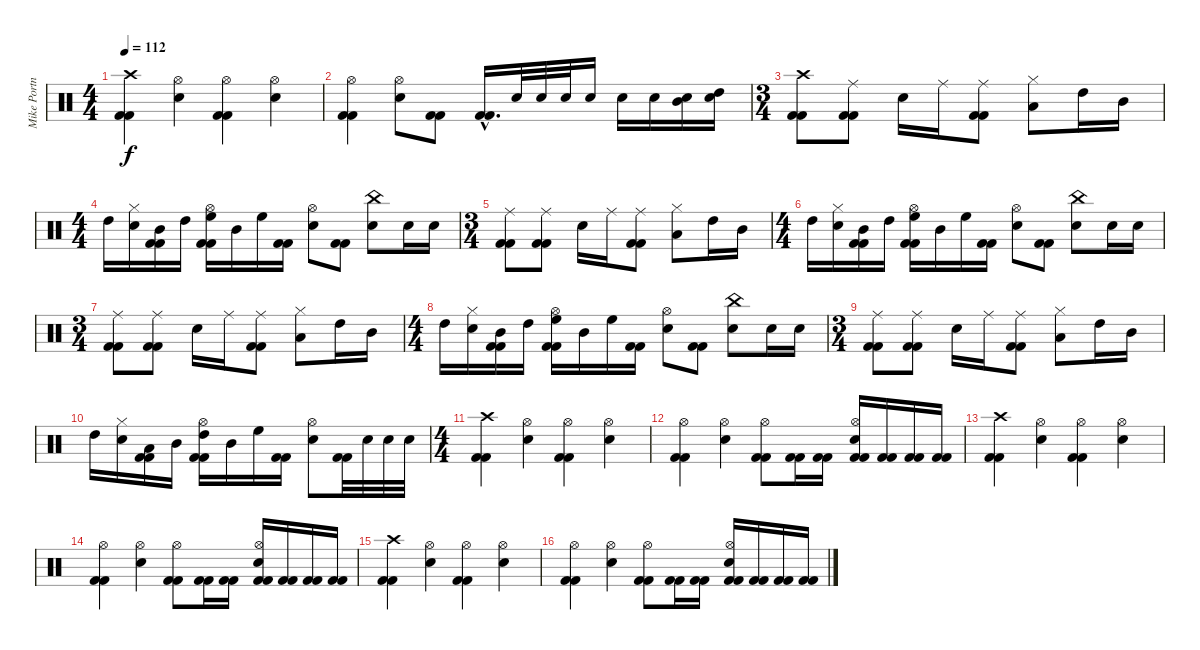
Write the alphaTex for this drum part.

\track ("Mike Portnoy - Drum" "Mike Portn") {instrument percussion}
\staff {score}
\articulation defaults
\ts (4 4)
\tempo 112
\clef neutral
\ks c
("Crash high (hit)" "Kick (hit) 2" "Kick (hit) 2").4{dy f} ("Hi-Hat (open)" "Snare (hit) 2").4 ("Hi-Hat (open)" "Kick (hit) 2" "Kick (hit) 2").4 ("Hi-Hat (open)" "Snare (hit) 2").4 |
("Hi-Hat (open)" "Kick (hit) 2" "Kick (hit) 2").4 ("Hi-Hat (open)" "Snare (hit) 2").8 ("Kick (hit) 2" "Kick (hit) 2").8 ("Kick (hit) 2"{hac} "Kick (hit) 2"{hac}).16{d} "Snare (hit) 2".32 "Snare (hit) 2".32 "Snare (hit) 2".32 "Snare (hit) 2".16 "Snare (hit) 2".16 "Snare (hit) 2".16 ("Mid Tom (hit)" "Snare (hit) 2").16 ("High Tom (hit)" "Snare (hit) 2").16 |
\ts (3 4)
("Crash high (hit)" "Kick (hit) 2" "Kick (hit) 2").8 ("Ride (middle)" "Kick (hit) 2" "Kick (hit) 2").8 "Snare (hit) 2".16 "Ride (middle)".16 ("Ride (middle)" "Kick (hit) 2" "Kick (hit) 2").8 ("Low Tom (hit)" "Hi-Hat (closed)").8 "High Tom (hit)".16 "Mid Tom (hit)".16 |
\ts (4 4)
"High Tom (hit)".16 ("Snare (hit) 2" "Hi-Hat (closed)").16 ("Mid Tom (hit)" "Kick (hit) 2" "Kick (hit) 2").16 "High Tom (hit)".16 ("Hi-Hat (open)" "High Floor Tom (hit)" "Kick (hit) 2" "Kick (hit) 2").16 "Mid Tom (hit)".16 "High Floor Tom (hit)".16 ("Kick (hit) 2" "Kick (hit) 2").16 ("Hi-Hat (open)" "Snare (hit) 2").8 ("Kick (hit) 2" "Kick (hit) 2").8 ("China (hit)" "Snare (hit) 2").8 "Snare (hit) 2".16 "Snare (hit) 2".16 |
\ts (3 4)
("Ride (middle)" "Kick (hit) 2" "Kick (hit) 2").8 ("Ride (middle)" "Kick (hit) 2" "Kick (hit) 2").8 "Snare (hit) 2".16 "Ride (middle)".16 ("Ride (middle)" "Kick (hit) 2" "Kick (hit) 2").8 ("Low Tom (hit)" "Hi-Hat (closed)").8 "High Tom (hit)".16 "Mid Tom (hit)".16 |
\ts (4 4)
"High Tom (hit)".16 ("Snare (hit) 2" "Hi-Hat (closed)").16 ("Mid Tom (hit)" "Kick (hit) 2" "Kick (hit) 2").16 "High Tom (hit)".16 ("Hi-Hat (open)" "High Floor Tom (hit)" "Kick (hit) 2" "Kick (hit) 2").16 "Mid Tom (hit)".16 "High Floor Tom (hit)".16 ("Kick (hit) 2" "Kick (hit) 2").16 ("Hi-Hat (open)" "Snare (hit) 2").8 ("Kick (hit) 2" "Kick (hit) 2").8 ("China (hit)" "Snare (hit) 2").8 "Snare (hit) 2".16 "Snare (hit) 2".16 |
\ts (3 4)
("Ride (middle)" "Kick (hit) 2" "Kick (hit) 2").8 ("Ride (middle)" "Kick (hit) 2" "Kick (hit) 2").8 "Snare (hit) 2".16 "Ride (middle)".16 ("Ride (middle)" "Kick (hit) 2" "Kick (hit) 2").8 ("Low Tom (hit)" "Hi-Hat (closed)").8 "High Tom (hit)".16 "Mid Tom (hit)".16 |
\ts (4 4)
"High Tom (hit)".16 ("Snare (hit) 2" "Hi-Hat (closed)").16 ("Mid Tom (hit)" "Kick (hit) 2" "Kick (hit) 2").16 "High Tom (hit)".16 ("Hi-Hat (open)" "High Floor Tom (hit)" "Kick (hit) 2" "Kick (hit) 2").16 "Mid Tom (hit)".16 "High Floor Tom (hit)".16 ("Kick (hit) 2" "Kick (hit) 2").16 ("Hi-Hat (open)" "Snare (hit) 2").8 ("Kick (hit) 2" "Kick (hit) 2").8 ("China (hit)" "Snare (hit) 2").8 "Snare (hit) 2".16 "Snare (hit) 2".16 |
\ts (3 4)
("Ride (middle)" "Kick (hit) 2" "Kick (hit) 2").8 ("Ride (middle)" "Kick (hit) 2" "Kick (hit) 2").8 "Snare (hit) 2".16 "Ride (middle)".16 ("Ride (middle)" "Kick (hit) 2" "Kick (hit) 2").8 ("Low Tom (hit)" "Hi-Hat (closed)").8 "High Tom (hit)".16 "Mid Tom (hit)".16 |
"High Tom (hit)".16 ("Snare (hit) 2" "Hi-Hat (closed)").16 ("Low Tom (hit)" "Kick (hit) 2" "Kick (hit) 2").16 "Mid Tom (hit)".16 ("Hi-Hat (open)" "High Tom (hit)" "Kick (hit) 2" "Kick (hit) 2").16 "Mid Tom (hit)".16 "High Floor Tom (hit)".16 ("Kick (hit) 2" "Kick (hit) 2").16 ("Hi-Hat (open)" "Snare (hit) 2").8 ("Kick (hit) 2" "Kick (hit) 2").32 "Snare (hit) 2".32 "Snare (hit) 2".32 "Snare (hit) 2".32 |
\ts (4 4)
("Crash high (hit)" "Kick (hit) 2" "Kick (hit) 2").4 ("Hi-Hat (open)" "Snare (hit) 2").4 ("Hi-Hat (open)" "Kick (hit) 2" "Kick (hit) 2").4 ("Hi-Hat (open)" "Snare (hit) 2").4 |
("Hi-Hat (open)" "Kick (hit) 2" "Kick (hit) 2").4 ("Hi-Hat (open)" "Snare (hit) 2").4 ("Hi-Hat (open)" "Kick (hit) 2" "Kick (hit) 2").8 ("Kick (hit) 2" "Kick (hit) 2").16 ("Kick (hit) 2" "Kick (hit) 2").16 ("Hi-Hat (open)" "Snare (hit) 2" "Kick (hit) 2" "Kick (hit) 2").16 ("Kick (hit) 2" "Kick (hit) 2").16 ("Kick (hit) 2" "Kick (hit) 2").16 ("Kick (hit) 2" "Kick (hit) 2").16 |
("Crash high (hit)" "Kick (hit) 2" "Kick (hit) 2").4 ("Hi-Hat (open)" "Snare (hit) 2").4 ("Hi-Hat (open)" "Kick (hit) 2" "Kick (hit) 2").4 ("Hi-Hat (open)" "Snare (hit) 2").4 |
("Hi-Hat (open)" "Kick (hit) 2" "Kick (hit) 2").4 ("Hi-Hat (open)" "Snare (hit) 2").4 ("Hi-Hat (open)" "Kick (hit) 2" "Kick (hit) 2").8 ("Kick (hit) 2" "Kick (hit) 2").16 ("Kick (hit) 2" "Kick (hit) 2").16 ("Hi-Hat (open)" "Snare (hit) 2" "Kick (hit) 2" "Kick (hit) 2").16 ("Kick (hit) 2" "Kick (hit) 2").16 ("Kick (hit) 2" "Kick (hit) 2").16 ("Kick (hit) 2" "Kick (hit) 2").16 |
("Crash high (hit)" "Kick (hit) 2" "Kick (hit) 2").4 ("Hi-Hat (open)" "Snare (hit) 2").4 ("Hi-Hat (open)" "Kick (hit) 2" "Kick (hit) 2").4 ("Hi-Hat (open)" "Snare (hit) 2").4 |
("Hi-Hat (open)" "Kick (hit) 2" "Kick (hit) 2").4 ("Hi-Hat (open)" "Snare (hit) 2").4 ("Hi-Hat (open)" "Kick (hit) 2" "Kick (hit) 2").8 ("Kick (hit) 2" "Kick (hit) 2").16 ("Kick (hit) 2" "Kick (hit) 2").16 ("Hi-Hat (open)" "Snare (hit) 2" "Kick (hit) 2" "Kick (hit) 2").16 ("Kick (hit) 2" "Kick (hit) 2").16 ("Kick (hit) 2" "Kick (hit) 2").16 ("Kick (hit) 2" "Kick (hit) 2").16
